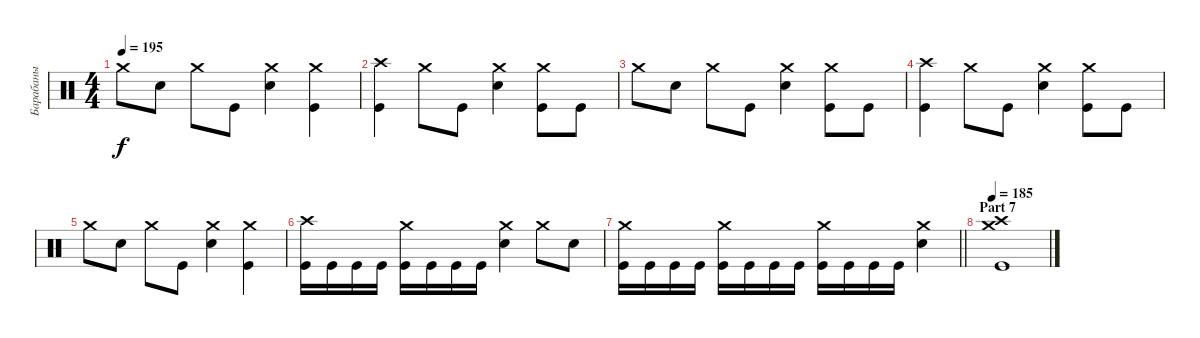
\track ("Барабаны" "Барабаны") {instrument percussion}
\staff {score}
\articulation defaults
\ts (4 4)
\tempo 195
\clef neutral
\ks c "Crash medium (hit)".8{dy f} "Electric Snare (hit)".8 "Crash medium (hit)".8 "Kick (hit)".8
("Crash medium (hit)" "Electric Snare (hit)").4 ("Crash medium (hit)" "Kick (hit)").4 |
("Crash high (hit)" "Kick (hit)").4 "Crash medium (hit)".8 "Kick (hit)".8 ("Crash medium (hit)" "Electric Snare (hit)").4 ("Crash medium (hit)" "Kick (hit)").8 "Kick (hit)".8 |
"Crash medium (hit)".8 "Electric Snare (hit)".8 "Crash medium (hit)".8 "Kick (hit)".8 ("Crash medium (hit)" "Electric Snare (hit)").4 ("Crash medium (hit)" "Kick (hit)").8 "Kick (hit)".8 |
("Crash high (hit)" "Kick (hit)").4 "Crash medium (hit)".8 "Kick (hit)".8 ("Crash medium (hit)" "Electric Snare (hit)").4 ("Crash medium (hit)" "Kick (hit)").8 "Kick (hit)".8 |
"Crash medium (hit)".8 "Electric Snare (hit)".8 "Crash medium (hit)".8 "Kick (hit)".8 ("Crash medium (hit)" "Electric Snare (hit)").4 ("Crash medium (hit)" "Kick (hit)").4 |
("Crash high (hit)" "Kick (hit)").16 "Kick (hit)".16 "Kick (hit)".16 "Kick (hit)".16 ("Crash medium (hit)" "Kick (hit)").16 "Kick (hit)".16 "Kick (hit)".16 "Kick (hit)".16 ("Crash medium (hit)" "Electric Snare (hit)").4 "Crash medium (hit)".8 "Electric Snare (hit)".8 |
\barLineRight lightlight
("Crash medium (hit)" "Kick (hit)").16 "Kick (hit)".16 "Kick (hit)".16 "Kick (hit)".16 ("Crash medium (hit)" "Kick (hit)").16 "Kick (hit)".16 "Kick (hit)".16 "Kick (hit)".16 ("Crash medium (hit)" "Kick (hit)").16 "Kick (hit)".16 "Kick (hit)".16 "Kick (hit)".16 ("Crash medium (hit)" "Electric Snare (hit)").4 |
\section ("" "Part 7")
\tempo 185
("Crash medium (hit)" "Crash high (hit)" "Kick (hit)").1
